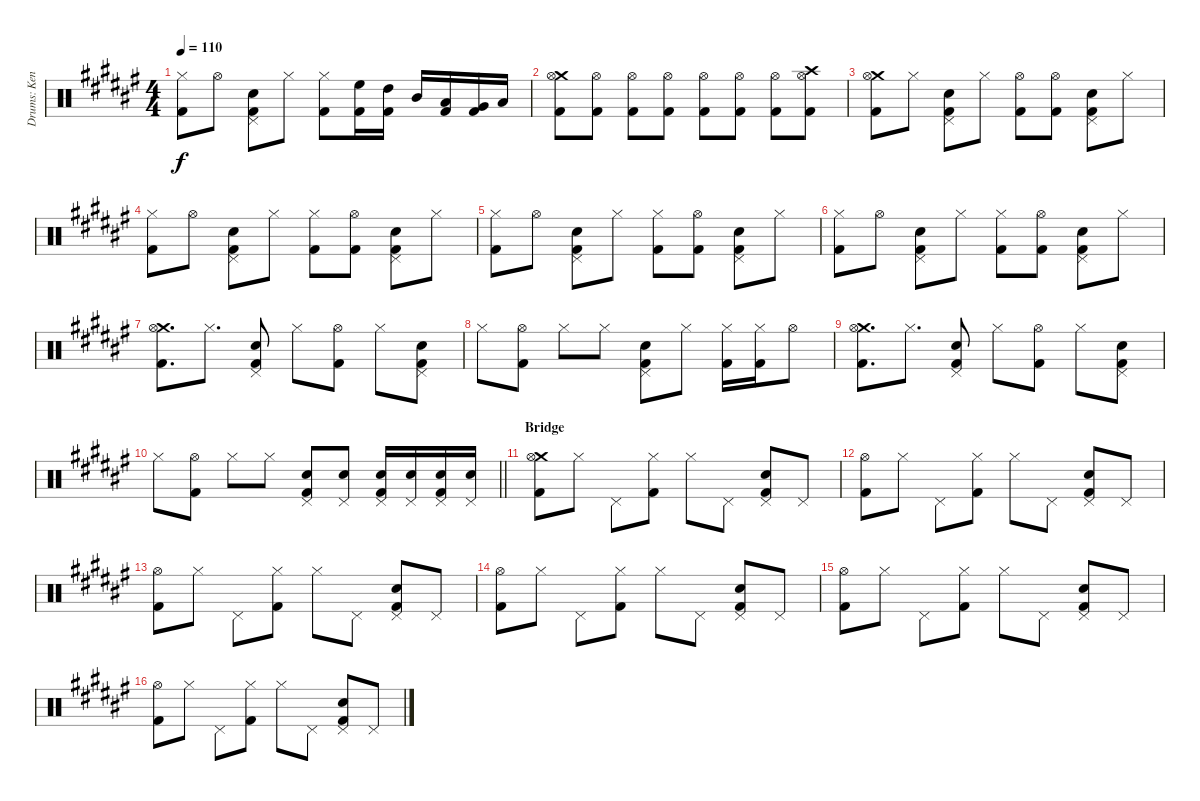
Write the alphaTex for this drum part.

\track ("Drums: Kenny Aronoff" "Drums: Ken") {instrument percussion}
\staff {score}
\articulation defaults
\ts (4 4)
\tempo 110
\clef neutral
\ks f#
("Hi-Hat (closed)" "Kick (hit) 2").8{dy f} "Hi-Hat (open)".8 ("Pedal Hi-Hat (hit)" "Snare (hit) 2" "Kick (hit) 2").8 "Hi-Hat (closed)".8 ("Hi-Hat (closed)" "Kick (hit) 2").8 ("High Floor Tom (hit)" "Kick (hit) 2").16 ("High Tom (hit)" "Kick (hit) 2").16 "Mid Tom (hit)".16 ("Low Tom (hit)" "Kick (hit) 2").16 ("Very Low Tom (hit)" "Kick (hit) 2").16 "Low Floor Tom (hit)".16 |
("Crash medium (hit)" "Hi-Hat (open)" "Kick (hit) 2").8 ("Hi-Hat (open)" "Kick (hit) 2").8 ("Hi-Hat (open)" "Kick (hit) 2").8 ("Hi-Hat (open)" "Kick (hit) 2").8 ("Hi-Hat (open)" "Kick (hit) 2").8 ("Hi-Hat (open)" "Kick (hit) 2").8 ("Hi-Hat (open)" "Kick (hit) 2").8 ("Crash high (hit)" "Hi-Hat (open)" "Kick (hit) 2").8 |
("Crash medium (hit)" "Hi-Hat (open)" "Kick (hit) 2").8 "Hi-Hat (closed)".8 ("Pedal Hi-Hat (hit)" "Snare (hit) 2" "Kick (hit) 2").8 "Hi-Hat (closed)".8 ("Hi-Hat (open)" "Kick (hit) 2").8 ("Hi-Hat (open)" "Kick (hit) 2").8 ("Pedal Hi-Hat (hit)" "Snare (hit) 2" "Kick (hit) 2").8 "Hi-Hat (closed)".8 |
("Hi-Hat (closed)" "Kick (hit) 2").8 "Hi-Hat (open)".8 ("Pedal Hi-Hat (hit)" "Snare (hit) 2" "Kick (hit) 2").8 "Hi-Hat (closed)".8 ("Hi-Hat (closed)" "Kick (hit) 2").8 ("Hi-Hat (open)" "Kick (hit) 2").8 ("Pedal Hi-Hat (hit)" "Snare (hit) 2" "Kick (hit) 2").8 "Hi-Hat (closed)".8 |
("Hi-Hat (closed)" "Kick (hit) 2").8 "Hi-Hat (open)".8 ("Pedal Hi-Hat (hit)" "Snare (hit) 2" "Kick (hit) 2").8 "Hi-Hat (closed)".8 ("Hi-Hat (closed)" "Kick (hit) 2").8 ("Hi-Hat (open)" "Kick (hit) 2").8 ("Pedal Hi-Hat (hit)" "Snare (hit) 2" "Kick (hit) 2").8 "Hi-Hat (closed)".8 |
("Hi-Hat (closed)" "Kick (hit) 2").8 "Hi-Hat (open)".8 ("Pedal Hi-Hat (hit)" "Snare (hit) 2" "Kick (hit) 2").8 "Hi-Hat (closed)".8 ("Hi-Hat (closed)" "Kick (hit) 2").8 ("Hi-Hat (open)" "Kick (hit) 2").8 ("Pedal Hi-Hat (hit)" "Snare (hit) 2" "Kick (hit) 2").8 "Hi-Hat (closed)".8 |
("Crash medium (hit)" "Hi-Hat (open)" "Kick (hit) 2").8{d} "Hi-Hat (closed)".8{d} ("Pedal Hi-Hat (hit)" "Snare (hit) 2" "Kick (hit) 2").8 "Hi-Hat (closed)".8 ("Hi-Hat (open)" "Kick (hit) 2").8 "Hi-Hat (closed)".8 ("Pedal Hi-Hat (hit)" "Snare (hit) 2" "Kick (hit) 2").8 |
"Hi-Hat (closed)".8 ("Hi-Hat (open)" "Kick (hit) 2").8 "Hi-Hat (closed)".8 "Hi-Hat (closed)".8 ("Pedal Hi-Hat (hit)" "Snare (hit) 2" "Kick (hit) 2").8 "Hi-Hat (closed)".8 ("Hi-Hat (closed)" "Kick (hit) 2").16 ("Hi-Hat (closed)" "Kick (hit) 2").16 "Hi-Hat (open)".8 |
("Crash medium (hit)" "Hi-Hat (open)" "Kick (hit) 2").8{d} "Hi-Hat (closed)".8{d} ("Pedal Hi-Hat (hit)" "Snare (hit) 2" "Kick (hit) 2").8 "Hi-Hat (closed)".8 ("Hi-Hat (open)" "Kick (hit) 2").8 "Hi-Hat (closed)".8 ("Pedal Hi-Hat (hit)" "Snare (hit) 2" "Kick (hit) 2").8 |
\barLineRight lightlight "Hi-Hat (closed)".8
("Hi-Hat (open)" "Kick (hit) 2").8 "Hi-Hat (closed)".8 "Hi-Hat (closed)".8 ("Pedal Hi-Hat (hit)" "Snare (hit) 2" "Kick (hit) 2").8 ("Pedal Hi-Hat (hit)" "Snare (hit) 2").8 ("Pedal Hi-Hat (hit)" "Snare (hit) 2" "Kick (hit) 2").16 ("Pedal Hi-Hat (hit)" "Snare (hit) 2").16 ("Pedal Hi-Hat (hit)" "Snare (hit) 2" "Kick (hit) 2").16 ("Pedal Hi-Hat (hit)" "Snare (hit) 2").16 |
\section ("" "Bridge")
("Crash medium (hit)" "Hi-Hat (open)" "Kick (hit) 2").8 "Hi-Hat (closed)".8 "Pedal Hi-Hat (hit)".8 ("Hi-Hat (closed)" "Kick (hit) 2").8 "Hi-Hat (closed)".8 "Pedal Hi-Hat (hit)".8 ("Pedal Hi-Hat (hit)" "Snare (hit) 2" "Kick (hit) 2").8 "Pedal Hi-Hat (hit)".8 |
("Hi-Hat (open)" "Kick (hit) 2").8 "Hi-Hat (closed)".8 "Pedal Hi-Hat (hit)".8 ("Hi-Hat (closed)" "Kick (hit) 2").8 "Hi-Hat (closed)".8 "Pedal Hi-Hat (hit)".8 ("Pedal Hi-Hat (hit)" "Snare (hit) 2" "Kick (hit) 2").8 "Pedal Hi-Hat (hit)".8 |
("Hi-Hat (open)" "Kick (hit) 2").8 "Hi-Hat (closed)".8 "Pedal Hi-Hat (hit)".8 ("Hi-Hat (closed)" "Kick (hit) 2").8 "Hi-Hat (closed)".8 "Pedal Hi-Hat (hit)".8 ("Pedal Hi-Hat (hit)" "Snare (hit) 2" "Kick (hit) 2").8 "Pedal Hi-Hat (hit)".8 |
("Hi-Hat (open)" "Kick (hit) 2").8 "Hi-Hat (closed)".8 "Pedal Hi-Hat (hit)".8 ("Hi-Hat (closed)" "Kick (hit) 2").8 "Hi-Hat (closed)".8 "Pedal Hi-Hat (hit)".8 ("Pedal Hi-Hat (hit)" "Snare (hit) 2" "Kick (hit) 2").8 "Pedal Hi-Hat (hit)".8 |
("Hi-Hat (open)" "Kick (hit) 2").8 "Hi-Hat (closed)".8 "Pedal Hi-Hat (hit)".8 ("Hi-Hat (closed)" "Kick (hit) 2").8 "Hi-Hat (closed)".8 "Pedal Hi-Hat (hit)".8 ("Pedal Hi-Hat (hit)" "Snare (hit) 2" "Kick (hit) 2").8 "Pedal Hi-Hat (hit)".8 |
("Hi-Hat (open)" "Kick (hit) 2").8 "Hi-Hat (closed)".8 "Pedal Hi-Hat (hit)".8 ("Hi-Hat (closed)" "Kick (hit) 2").8 "Hi-Hat (closed)".8 "Pedal Hi-Hat (hit)".8 ("Pedal Hi-Hat (hit)" "Snare (hit) 2" "Kick (hit) 2").8 "Pedal Hi-Hat (hit)".8
